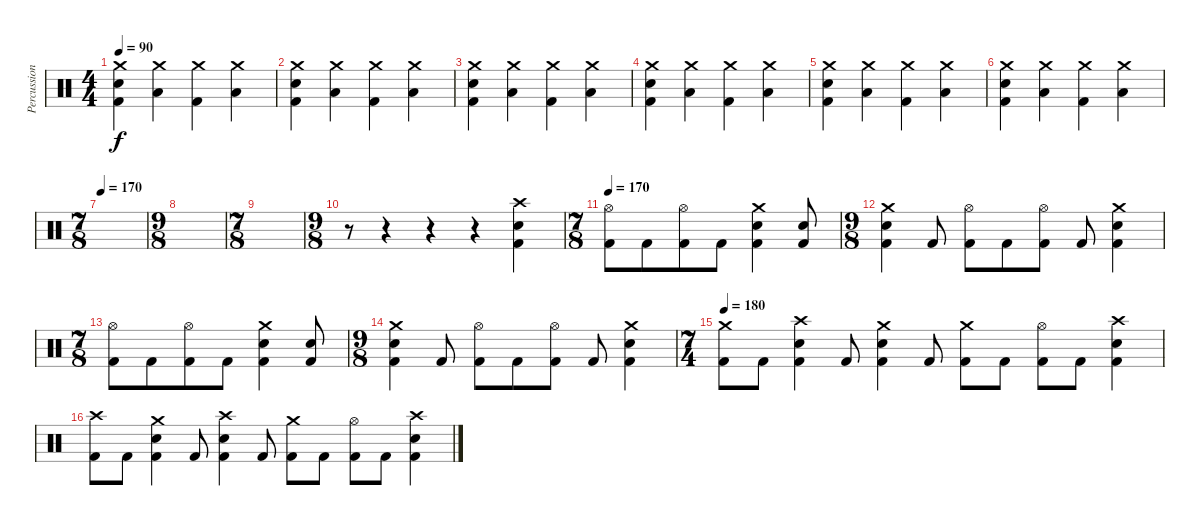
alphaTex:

\track ("Percussion" "Percussion") {instrument percussion}
\staff {score}
\articulation defaults
\ts (4 4)
\tempo 90
\clef neutral
\ks c
("Crash medium (hit)" "Snare (hit) 2" "Kick (hit) 2").4{dy f} ("Crash medium (hit)" "Low Floor Tom (hit)").4 ("Crash medium (hit)" "Kick (hit) 2").4 ("Crash medium (hit)" "Low Floor Tom (hit)").4 |
("Crash medium (hit)" "Snare (hit) 2" "Kick (hit) 2").4 ("Crash medium (hit)" "Low Floor Tom (hit)").4 ("Crash medium (hit)" "Kick (hit) 2").4 ("Crash medium (hit)" "Low Floor Tom (hit)").4 |
("Crash medium (hit)" "Snare (hit) 2" "Kick (hit) 2").4 ("Crash medium (hit)" "Low Floor Tom (hit)").4 ("Crash medium (hit)" "Kick (hit) 2").4 ("Crash medium (hit)" "Low Floor Tom (hit)").4 |
("Crash medium (hit)" "Snare (hit) 2" "Kick (hit) 2").4 ("Crash medium (hit)" "Low Floor Tom (hit)").4 ("Crash medium (hit)" "Kick (hit) 2").4 ("Crash medium (hit)" "Low Floor Tom (hit)").4 |
("Crash medium (hit)" "Snare (hit) 2" "Kick (hit) 2").4 ("Crash medium (hit)" "Low Floor Tom (hit)").4 ("Crash medium (hit)" "Kick (hit) 2").4 ("Crash medium (hit)" "Low Floor Tom (hit)").4 |
("Crash medium (hit)" "Snare (hit) 2" "Kick (hit) 2").4 ("Crash medium (hit)" "Low Floor Tom (hit)").4 ("Crash medium (hit)" "Kick (hit) 2").4 ("Crash medium (hit)" "Low Floor Tom (hit)").4 |
\ts (7 8)
\tempo 170
|
\ts (9 8)
|
\ts (7 8)
|
\ts (9 8)
r.8 r.4 r.4 r.4 ("Crash high (hit)" "Snare (hit) 2" "Kick (hit) 2").4 |
\ts (7 8)
\tempo 170
("Hi-Hat (open)" "Kick (hit) 2").8 "Kick (hit) 2".8 ("Hi-Hat (open)" "Kick (hit) 2").8 "Kick (hit) 2".8 ("Crash medium (hit)" "Snare (hit) 2" "Kick (hit) 2").4 ("Snare (hit) 2" "Kick (hit) 2").8 |
\ts (9 8)
("Crash medium (hit)" "Snare (hit) 2" "Kick (hit) 2").4 "Kick (hit) 2".8 ("Hi-Hat (open)" "Kick (hit) 2").8 "Kick (hit) 2".8 ("Hi-Hat (open)" "Kick (hit) 2").8 "Kick (hit) 2".8 ("Crash medium (hit)" "Snare (hit) 2" "Kick (hit) 2").4 |
\ts (7 8)
("Hi-Hat (open)" "Kick (hit) 2").8 "Kick (hit) 2".8 ("Hi-Hat (open)" "Kick (hit) 2").8 "Kick (hit) 2".8 ("Crash medium (hit)" "Snare (hit) 2" "Kick (hit) 2").4 ("Snare (hit) 2" "Kick (hit) 2").8 |
\ts (9 8)
("Crash medium (hit)" "Snare (hit) 2" "Kick (hit) 2").4 "Kick (hit) 2".8 ("Hi-Hat (open)" "Kick (hit) 2").8 "Kick (hit) 2".8 ("Hi-Hat (open)" "Kick (hit) 2").8 "Kick (hit) 2".8 ("Crash medium (hit)" "Snare (hit) 2" "Kick (hit) 2").4 |
\ts (7 4)
\tempo 190
\tempo 180
("Crash medium (hit)" "Kick (hit) 2").8 "Kick (hit) 2".8 ("Crash high (hit)" "Snare (hit) 2" "Kick (hit) 2").4 "Kick (hit) 2".8 ("Crash medium (hit)" "Snare (hit) 2" "Kick (hit) 2").4 "Kick (hit) 2".8 ("Crash medium (hit)" "Kick (hit) 2").8 "Kick (hit) 2".8 ("Hi-Hat (open)" "Kick (hit) 2").8 "Kick (hit) 2".8 ("Crash high (hit)" "Snare (hit) 2" "Kick (hit) 2").4 |
("Crash high (hit)" "Kick (hit) 2").8 "Kick (hit) 2".8 ("Crash medium (hit)" "Snare (hit) 2" "Kick (hit) 2").4 "Kick (hit) 2".8 ("Crash high (hit)" "Snare (hit) 2" "Kick (hit) 2").4 "Kick (hit) 2".8 ("Crash medium (hit)" "Kick (hit) 2").8 "Kick (hit) 2".8 ("Hi-Hat (open)" "Kick (hit) 2").8 "Kick (hit) 2".8 ("Crash high (hit)" "Snare (hit) 2" "Kick (hit) 2").4
